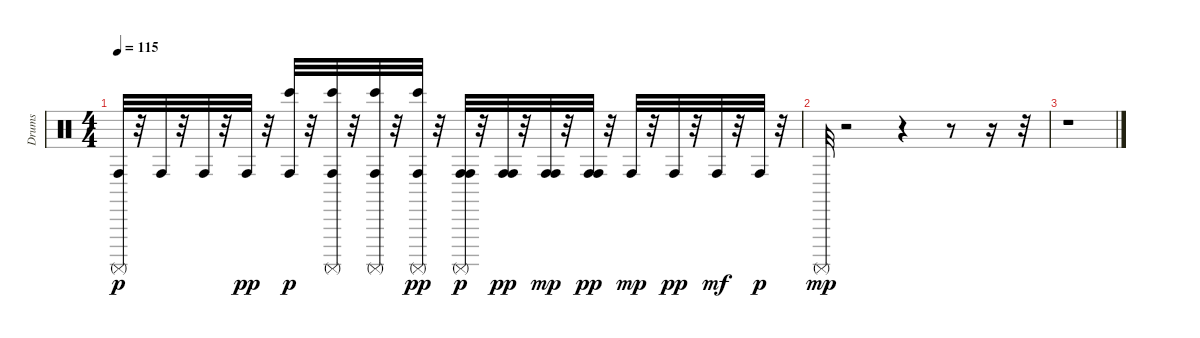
\track ("Drums" "Drums") {instrument percussion}
\staff {score}
\articulation defaults
\ts (4 4)
\tempo 115
\clef neutral
\ks c
("Conga high (hit)" "Surdo (mute)").32{dy p} r.32 "Conga high (hit)".32 r.32 "Conga high (hit)".32 r.32 "Conga high (hit)".32{dy pp} r.32 ("Conga high (hit)" "Bongo High (hit)").32{dy p} r.32 ("Conga high (hit)" "Surdo (mute)" "Bongo High (hit)").32 r.32 ("Conga high (hit)" "Surdo (mute)" "Bongo High (hit)").32 r.32 ("Conga high (hit)" "Surdo (mute)" "Bongo High (hit)").32{dy pp} r.32 ("Conga high (hit)" "Conga high (hit)" "Surdo (mute)").32{dy p} r.32 ("Conga high (hit)" "Conga high (hit)").32{dy pp} r.32 ("Conga high (hit)" "Conga high (hit)").32{dy mp} r.32 ("Conga high (hit)" "Conga high (hit)").32{dy pp} r.32 "Conga high (hit)".32{dy mp} r.32 "Conga high (hit)".32{dy pp} r.32 "Conga high (hit)".32{dy mf} r.32 "Conga high (hit)".32{dy p} r.32 |
"Surdo (mute)".32{dy mp} r.2 r.4 r.8 r.16 r.32 |
r.1
